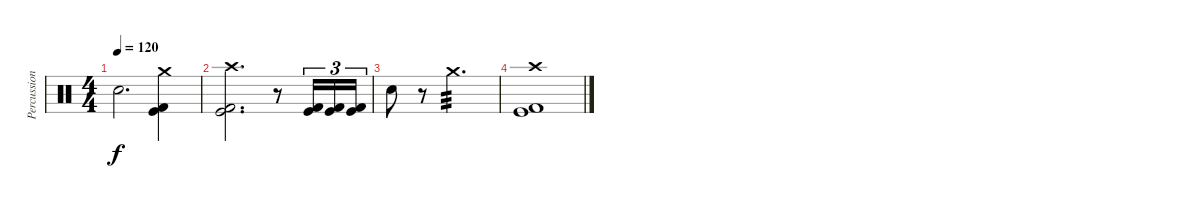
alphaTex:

\track ("Percussion" "Percussion") {instrument percussion}
\staff {score}
\articulation defaults
\ts (4 4)
\section ("" "")
\tempo 120
\clef neutral
\ks c "Snare (hit)"{t}.2{d dy f}
("Crash medium (hit)" "Kick (hit)" "Kick (hit) 2").4 |
("Crash high (hit)" "Kick (hit)" "Kick (hit) 2").2{d} r.8 ("Kick (hit)" "Kick (hit) 2").16{tu (3 2)} ("Kick (hit)" "Kick (hit) 2").16{tu (3 2)} ("Kick (hit)" "Kick (hit) 2").16{tu (3 2)} |
"Electric Snare (hit)".8 r.8{volume 0} "Crash medium (hit)".2{d tp 3 volume 16} |
("Crash high (hit)" "Kick (hit)" "Kick (hit) 2").1
